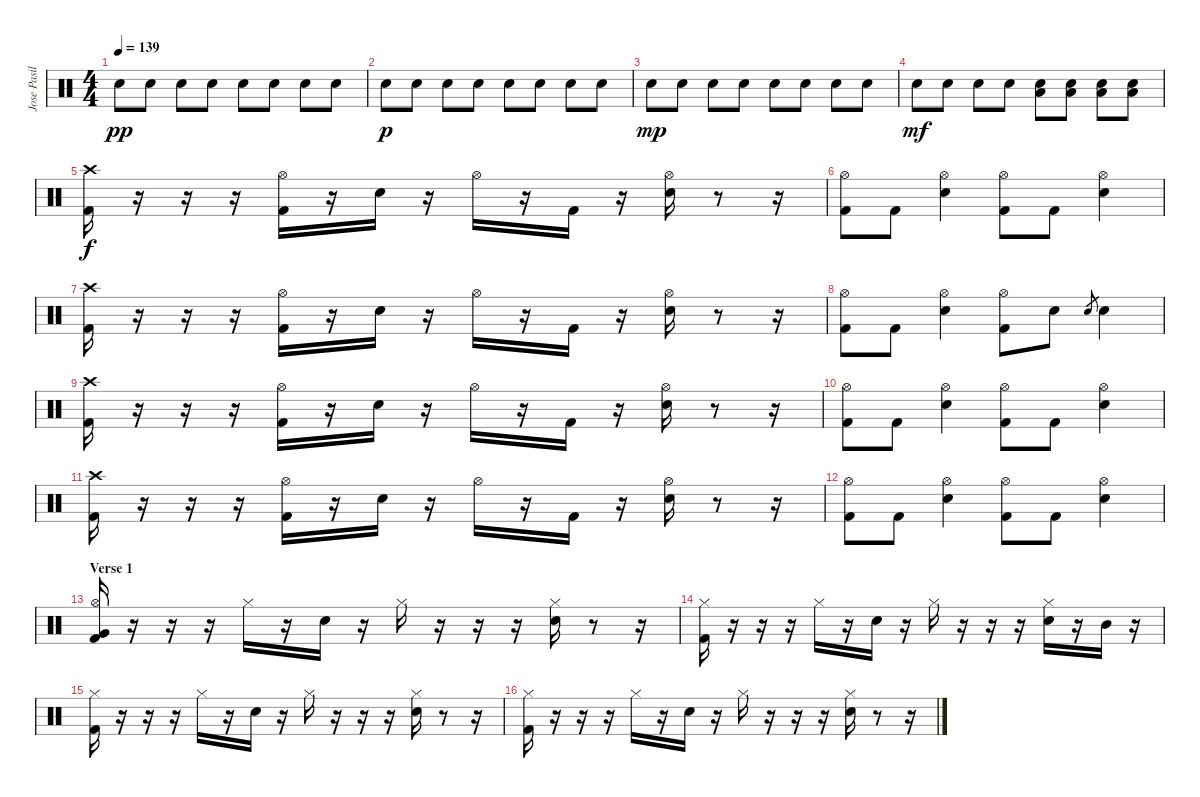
\track ("Jose Pasillas - Drums" "Jose Pasil") {instrument percussion}
\staff {score}
\articulation defaults
\ts (4 4)
\tempo 139
\clef neutral
\ks c "Electric Snare (hit)".8{dy pp} "Electric Snare (hit)".8 "Electric Snare (hit)".8 "Electric Snare (hit)".8 "Electric Snare (hit)".8 "Electric Snare (hit)".8 "Electric Snare (hit)".8 "Electric Snare (hit)".8
|
"Electric Snare (hit)".8{dy p} "Electric Snare (hit)".8 "Electric Snare (hit)".8 "Electric Snare (hit)".8 "Electric Snare (hit)".8 "Electric Snare (hit)".8 "Electric Snare (hit)".8 "Electric Snare (hit)".8 |
"Electric Snare (hit)".8{dy mp} "Electric Snare (hit)".8 "Electric Snare (hit)".8 "Electric Snare (hit)".8 "Electric Snare (hit)".8 "Electric Snare (hit)".8 "Electric Snare (hit)".8 "Electric Snare (hit)".8 |
"Electric Snare (hit)".8{dy mf} "Electric Snare (hit)".8 "Electric Snare (hit)".8 "Electric Snare (hit)".8 ("Low Tom (hit)" "Electric Snare (hit)").8 ("Low Tom (hit)" "Electric Snare (hit)").8 ("Low Tom (hit)" "Electric Snare (hit)").8 ("Low Tom (hit)" "Electric Snare (hit)").8 |
("Crash high (hit)" "Kick (hit) 2").16{dy f} r.16 r.16 r.16 ("Hi-Hat (open)" "Kick (hit) 2").16 r.16 "Electric Snare (hit)".16 r.16 "Hi-Hat (open)".16 r.16 "Kick (hit) 2".16 r.16 ("Hi-Hat (open)" "Electric Snare (hit)").16 r.8 r.16 |
("Hi-Hat (open)" "Kick (hit) 2").8 "Kick (hit) 2".8 ("Hi-Hat (open)" "Electric Snare (hit)").4 ("Hi-Hat (open)" "Kick (hit) 2").8 "Kick (hit) 2".8 ("Hi-Hat (open)" "Electric Snare (hit)").4 |
("Crash high (hit)" "Kick (hit) 2").16 r.16 r.16 r.16 ("Hi-Hat (open)" "Kick (hit) 2").16 r.16 "Electric Snare (hit)".16 r.16 "Hi-Hat (open)".16 r.16 "Kick (hit) 2".16 r.16 ("Hi-Hat (open)" "Electric Snare (hit)").16 r.8 r.16 |
("Hi-Hat (open)" "Kick (hit) 2").8 "Kick (hit) 2".8 ("Hi-Hat (open)" "Electric Snare (hit)").4 ("Hi-Hat (open)" "Kick (hit) 2").8 "Electric Snare (hit)".8 "Electric Snare (hit)".8{gr} "Electric Snare (hit)".4 |
("Crash high (hit)" "Kick (hit) 2").16 r.16 r.16 r.16 ("Hi-Hat (open)" "Kick (hit) 2").16 r.16 "Electric Snare (hit)".16 r.16 "Hi-Hat (open)".16 r.16 "Kick (hit) 2".16 r.16 ("Hi-Hat (open)" "Electric Snare (hit)").16 r.8 r.16 |
("Hi-Hat (open)" "Kick (hit) 2").8 "Kick (hit) 2".8 ("Hi-Hat (open)" "Electric Snare (hit)").4 ("Hi-Hat (open)" "Kick (hit) 2").8 "Kick (hit) 2".8 ("Hi-Hat (open)" "Electric Snare (hit)").4 |
("Crash high (hit)" "Kick (hit) 2").16 r.16 r.16 r.16 ("Hi-Hat (open)" "Kick (hit) 2").16 r.16 "Electric Snare (hit)".16 r.16 "Hi-Hat (open)".16 r.16 "Kick (hit) 2".16 r.16 ("Hi-Hat (open)" "Electric Snare (hit)").16 r.8 r.16 |
("Hi-Hat (open)" "Kick (hit) 2").8 "Kick (hit) 2".8 ("Hi-Hat (open)" "Electric Snare (hit)").4 ("Hi-Hat (open)" "Kick (hit) 2").8 "Kick (hit) 2".8 ("Hi-Hat (open)" "Electric Snare (hit)").4 |
\section ("" "Verse 1")
("Hi-Hat (open)" "Very Low Tom (hit)" "Kick (hit) 2").16 r.16 r.16 r.16 "Hi-Hat (closed)".16 r.16 "Electric Snare (hit)".16 r.16 "Hi-Hat (closed)".16 r.16 r.16 r.16 ("Hi-Hat (closed)" "Electric Snare (hit)").16 r.8 r.16 |
("Hi-Hat (closed)" "Kick (hit) 2").16 r.16 r.16 r.16 "Hi-Hat (closed)".16 r.16 "Electric Snare (hit)".16 r.16 "Hi-Hat (closed)".16 r.16 r.16 r.16 ("Hi-Hat (closed)" "Electric Snare (hit)").16 r.16 "Mid Tom (hit)".16 r.16 |
("Hi-Hat (closed)" "Kick (hit) 2").16 r.16 r.16 r.16 "Hi-Hat (closed)".16 r.16 "Electric Snare (hit)".16 r.16 "Hi-Hat (closed)".16 r.16 r.16 r.16 ("Hi-Hat (closed)" "Electric Snare (hit)").16 r.8 r.16 |
("Hi-Hat (closed)" "Kick (hit) 2").16 r.16 r.16 r.16 "Hi-Hat (closed)".16 r.16 "Electric Snare (hit)".16 r.16 "Hi-Hat (closed)".16 r.16 r.16 r.16 ("Hi-Hat (closed)" "Electric Snare (hit)").16 r.8 r.16
